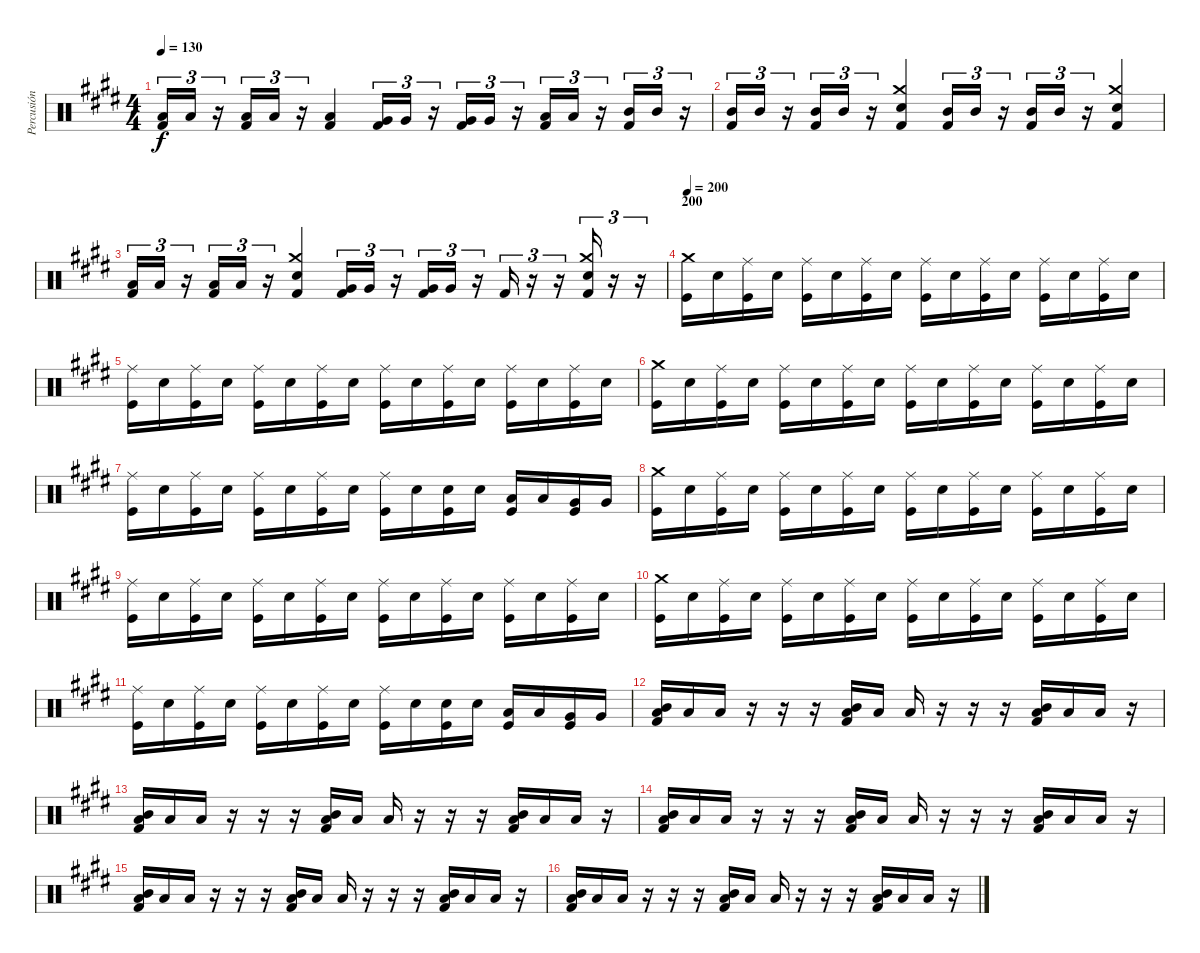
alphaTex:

\track ("Percusión" "Percusión") {instrument percussion}
\staff {score}
\articulation defaults
\ts (4 4)
\tempo 130
\clef neutral
\ks e
("Low Tom (hit)" "Kick (hit) 2").16{tu (3 2) dy f} "Low Tom (hit)".16{tu (3 2)} r.16{tu (3 2)} ("Low Tom (hit)" "Kick (hit) 2").16{tu (3 2)} "Low Tom (hit)".16{tu (3 2)} r.16{tu (3 2)} ("Low Tom (hit)" "Kick (hit) 2").4 ("Very Low Tom (hit)" "Kick (hit) 2").16{tu (3 2)} "Very Low Tom (hit)".16{tu (3 2)} r.16{tu (3 2)} ("Very Low Tom (hit)" "Kick (hit) 2").16{tu (3 2)} "Very Low Tom (hit)".16{tu (3 2)} r.16{tu (3 2)} ("Low Tom (hit)" "Kick (hit) 2").16{tu (3 2)} "Low Tom (hit)".16{tu (3 2)} r.16{tu (3 2)} ("Mid Tom (hit)" "Kick (hit) 2").16{tu (3 2)} "Mid Tom (hit)".16{tu (3 2)} r.16{tu (3 2)} |
("Mid Tom (hit)" "Kick (hit) 2").16{tu (3 2)} "Mid Tom (hit)".16{tu (3 2)} r.16{tu (3 2)} ("Mid Tom (hit)" "Kick (hit) 2").16{tu (3 2)} "Mid Tom (hit)".16{tu (3 2)} r.16{tu (3 2)} ("Crash medium (hit)" "Electric Snare (hit)" "Kick (hit) 2").4 ("Mid Tom (hit)" "Kick (hit) 2").16{tu (3 2)} "Mid Tom (hit)".16{tu (3 2)} r.16{tu (3 2)} ("Mid Tom (hit)" "Kick (hit) 2").16{tu (3 2)} "Mid Tom (hit)".16{tu (3 2)} r.16{tu (3 2)} ("Crash medium (hit)" "Electric Snare (hit)" "Kick (hit) 2").4 |
("Low Tom (hit)" "Kick (hit) 2").16{tu (3 2)} "Low Tom (hit)".16{tu (3 2)} r.16{tu (3 2)} ("Low Tom (hit)" "Kick (hit) 2").16{tu (3 2)} "Low Tom (hit)".16{tu (3 2)} r.16{tu (3 2)} ("Crash medium (hit)" "Electric Snare (hit)" "Kick (hit) 2").4 ("Very Low Tom (hit)" "Kick (hit) 2").16{tu (3 2)} "Very Low Tom (hit)".16{tu (3 2)} r.16{tu (3 2)} ("Very Low Tom (hit)" "Kick (hit) 2").16{tu (3 2)} "Very Low Tom (hit)".16{tu (3 2)} r.16{tu (3 2)} "Kick (hit) 2".16{tu (3 2)} r.16{tu (3 2)} r.16{tu (3 2)} ("Crash medium (hit)" "Electric Snare (hit)" "Kick (hit) 2").16{tu (3 2)} r.16{tu (3 2)} r.16{tu (3 2)} |
\section ("" "200")
\tempo 200
("Crash medium (hit)" "Kick (hit)").16 "Electric Snare (hit)".16 ("Ride (middle)" "Kick (hit)").16 "Electric Snare (hit)".16 ("Ride (middle)" "Kick (hit)").16 "Electric Snare (hit)".16 ("Ride (middle)" "Kick (hit)").16 "Electric Snare (hit)".16 ("Ride (middle)" "Kick (hit)").16 "Electric Snare (hit)".16 ("Ride (middle)" "Kick (hit)").16 "Electric Snare (hit)".16 ("Ride (middle)" "Kick (hit)").16 "Electric Snare (hit)".16 ("Ride (middle)" "Kick (hit)").16 "Electric Snare (hit)".16 |
("Ride (middle)" "Kick (hit)").16 "Electric Snare (hit)".16 ("Ride (middle)" "Kick (hit)").16 "Electric Snare (hit)".16 ("Ride (middle)" "Kick (hit)").16 "Electric Snare (hit)".16 ("Ride (middle)" "Kick (hit)").16 "Electric Snare (hit)".16 ("Ride (middle)" "Kick (hit)").16 "Electric Snare (hit)".16 ("Ride (middle)" "Kick (hit)").16 "Electric Snare (hit)".16 ("Ride (middle)" "Kick (hit)").16 "Electric Snare (hit)".16 ("Ride (middle)" "Kick (hit)").16 "Electric Snare (hit)".16 |
("Crash medium (hit)" "Kick (hit)").16 "Electric Snare (hit)".16 ("Ride (middle)" "Kick (hit)").16 "Electric Snare (hit)".16 ("Ride (middle)" "Kick (hit)").16 "Electric Snare (hit)".16 ("Ride (middle)" "Kick (hit)").16 "Electric Snare (hit)".16 ("Ride (middle)" "Kick (hit)").16 "Electric Snare (hit)".16 ("Ride (middle)" "Kick (hit)").16 "Electric Snare (hit)".16 ("Ride (middle)" "Kick (hit)").16 "Electric Snare (hit)".16 ("Ride (middle)" "Kick (hit)").16 "Electric Snare (hit)".16 |
("Ride (middle)" "Kick (hit)").16 "Electric Snare (hit)".16 ("Ride (middle)" "Kick (hit)").16 "Electric Snare (hit)".16 ("Ride (middle)" "Kick (hit)").16 "Electric Snare (hit)".16 ("Ride (middle)" "Kick (hit)").16 "Electric Snare (hit)".16 ("Ride (middle)" "Kick (hit)").16 "Electric Snare (hit)".16 ("Electric Snare (hit)" "Kick (hit)").16 "Electric Snare (hit)".16 ("Low Tom (hit)" "Kick (hit)").16 "Low Tom (hit)".16 ("Very Low Tom (hit)" "Kick (hit)").16 "Very Low Tom (hit)".16 |
("Crash medium (hit)" "Kick (hit)").16 "Electric Snare (hit)".16 ("Ride (middle)" "Kick (hit)").16 "Electric Snare (hit)".16 ("Ride (middle)" "Kick (hit)").16 "Electric Snare (hit)".16 ("Ride (middle)" "Kick (hit)").16 "Electric Snare (hit)".16 ("Ride (middle)" "Kick (hit)").16 "Electric Snare (hit)".16 ("Ride (middle)" "Kick (hit)").16 "Electric Snare (hit)".16 ("Ride (middle)" "Kick (hit)").16 "Electric Snare (hit)".16 ("Ride (middle)" "Kick (hit)").16 "Electric Snare (hit)".16 |
("Ride (middle)" "Kick (hit)").16 "Electric Snare (hit)".16 ("Ride (middle)" "Kick (hit)").16 "Electric Snare (hit)".16 ("Ride (middle)" "Kick (hit)").16 "Electric Snare (hit)".16 ("Ride (middle)" "Kick (hit)").16 "Electric Snare (hit)".16 ("Ride (middle)" "Kick (hit)").16 "Electric Snare (hit)".16 ("Ride (middle)" "Kick (hit)").16 "Electric Snare (hit)".16 ("Ride (middle)" "Kick (hit)").16 "Electric Snare (hit)".16 ("Ride (middle)" "Kick (hit)").16 "Electric Snare (hit)".16 |
("Crash medium (hit)" "Kick (hit)").16 "Electric Snare (hit)".16 ("Ride (middle)" "Kick (hit)").16 "Electric Snare (hit)".16 ("Ride (middle)" "Kick (hit)").16 "Electric Snare (hit)".16 ("Ride (middle)" "Kick (hit)").16 "Electric Snare (hit)".16 ("Ride (middle)" "Kick (hit)").16 "Electric Snare (hit)".16 ("Ride (middle)" "Kick (hit)").16 "Electric Snare (hit)".16 ("Ride (middle)" "Kick (hit)").16 "Electric Snare (hit)".16 ("Ride (middle)" "Kick (hit)").16 "Electric Snare (hit)".16 |
("Ride (middle)" "Kick (hit)").16 "Electric Snare (hit)".16 ("Ride (middle)" "Kick (hit)").16 "Electric Snare (hit)".16 ("Ride (middle)" "Kick (hit)").16 "Electric Snare (hit)".16 ("Ride (middle)" "Kick (hit)").16 "Electric Snare (hit)".16 ("Ride (middle)" "Kick (hit)").16 "Electric Snare (hit)".16 ("Electric Snare (hit)" "Kick (hit)").16 "Electric Snare (hit)".16 ("Low Tom (hit)" "Kick (hit)").16 "Low Tom (hit)".16 ("Very Low Tom (hit)" "Kick (hit)").16 "Very Low Tom (hit)".16 |
("Mid Tom (hit)" "Low Tom (hit)" "Kick (hit) 2").16 "Low Tom (hit)".16 "Low Tom (hit)".16 r.16 r.16 r.16 ("Mid Tom (hit)" "Low Tom (hit)" "Kick (hit) 2").16 "Low Tom (hit)".16 "Low Tom (hit)".16 r.16 r.16 r.16 ("Mid Tom (hit)" "Low Tom (hit)" "Kick (hit) 2").16 "Low Tom (hit)".16 "Low Tom (hit)".16 r.16 |
("Mid Tom (hit)" "Low Tom (hit)" "Kick (hit) 2").16 "Low Tom (hit)".16 "Low Tom (hit)".16 r.16 r.16 r.16 ("Mid Tom (hit)" "Low Tom (hit)" "Kick (hit) 2").16 "Low Tom (hit)".16 "Low Tom (hit)".16 r.16 r.16 r.16 ("Mid Tom (hit)" "Low Tom (hit)" "Kick (hit) 2").16 "Low Tom (hit)".16 "Low Tom (hit)".16 r.16 |
("Mid Tom (hit)" "Low Tom (hit)" "Kick (hit) 2").16 "Low Tom (hit)".16 "Low Tom (hit)".16 r.16 r.16 r.16 ("Mid Tom (hit)" "Low Tom (hit)" "Kick (hit) 2").16 "Low Tom (hit)".16 "Low Tom (hit)".16 r.16 r.16 r.16 ("Mid Tom (hit)" "Low Tom (hit)" "Kick (hit) 2").16 "Low Tom (hit)".16 "Low Tom (hit)".16 r.16 |
("Mid Tom (hit)" "Low Tom (hit)" "Kick (hit) 2").16 "Low Tom (hit)".16 "Low Tom (hit)".16 r.16 r.16 r.16 ("Mid Tom (hit)" "Low Tom (hit)" "Kick (hit) 2").16 "Low Tom (hit)".16 "Low Tom (hit)".16 r.16 r.16 r.16 ("Mid Tom (hit)" "Low Tom (hit)" "Kick (hit) 2").16 "Low Tom (hit)".16 "Low Tom (hit)".16 r.16 |
("Mid Tom (hit)" "Low Tom (hit)" "Kick (hit) 2").16 "Low Tom (hit)".16 "Low Tom (hit)".16 r.16 r.16 r.16 ("Mid Tom (hit)" "Low Tom (hit)" "Kick (hit) 2").16 "Low Tom (hit)".16 "Low Tom (hit)".16 r.16 r.16 r.16 ("Mid Tom (hit)" "Low Tom (hit)" "Kick (hit) 2").16 "Low Tom (hit)".16 "Low Tom (hit)".16 r.16
